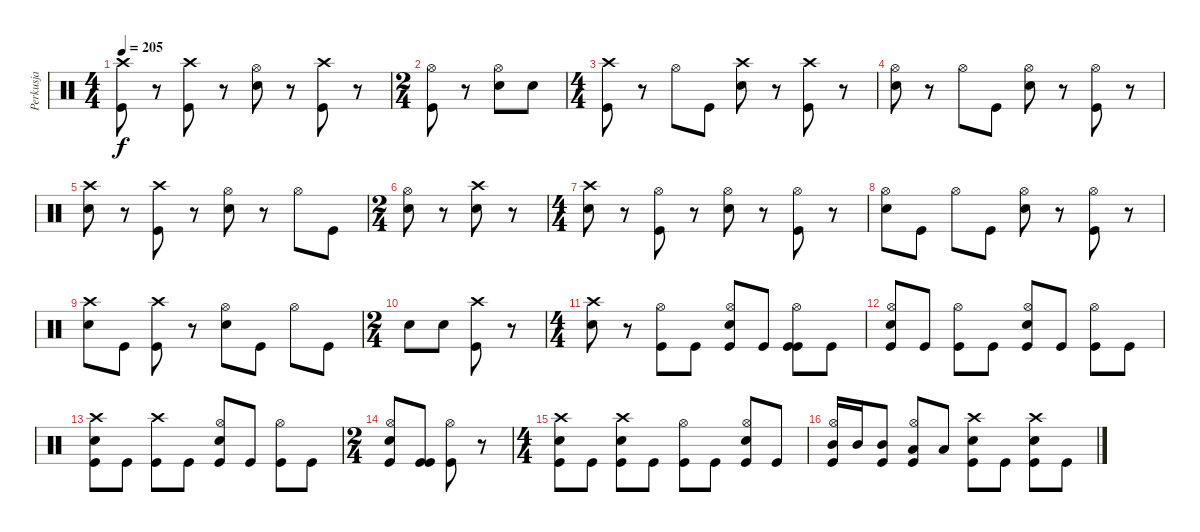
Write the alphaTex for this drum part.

\track ("Perkusja" "Perkusja") {instrument percussion}
\staff {score}
\articulation defaults
\ts (4 4)
\tempo 205
\clef neutral
\ks c
("Crash high (hit)" "Kick (hit)").8{dy f} r.8 ("Crash high (hit)" "Kick (hit)").8 r.8 ("Hi-Hat (open)" "Snare (hit) 2").8 r.8 ("Crash high (hit)" "Kick (hit)").8 r.8 |
\ts (2 4)
("Hi-Hat (open)" "Kick (hit)").8 r.8 ("Hi-Hat (open)" "Snare (hit) 2").8 "Snare (hit) 2".8 |
\ts (4 4)
("Crash high (hit)" "Kick (hit)").8 r.8 "Hi-Hat (open)".8 "Kick (hit)".8 ("Crash high (hit)" "Snare (hit) 2").8 r.8 ("Crash high (hit)" "Kick (hit)").8 r.8 |
("Hi-Hat (open)" "Snare (hit) 2").8 r.8 "Hi-Hat (open)".8 "Kick (hit)".8 ("Hi-Hat (open)" "Snare (hit) 2").8 r.8 ("Hi-Hat (open)" "Kick (hit)").8 r.8 |
("Crash high (hit)" "Snare (hit) 2").8 r.8 ("Crash high (hit)" "Kick (hit)").8 r.8 ("Hi-Hat (open)" "Snare (hit) 2").8 r.8 "Hi-Hat (open)".8 "Kick (hit)".8 |
\ts (2 4)
("Hi-Hat (open)" "Snare (hit) 2").8 r.8 ("Crash high (hit)" "Snare (hit) 2").8 r.8 |
\ts (4 4)
("Crash high (hit)" "Snare (hit) 2").8 r.8 ("Hi-Hat (open)" "Kick (hit)").8 r.8 ("Hi-Hat (open)" "Snare (hit) 2").8 r.8 ("Hi-Hat (open)" "Kick (hit)").8 r.8 |
("Hi-Hat (open)" "Snare (hit) 2").8 "Kick (hit)".8 "Hi-Hat (open)".8 "Kick (hit)".8 ("Hi-Hat (open)" "Snare (hit) 2").8 r.8 ("Hi-Hat (open)" "Kick (hit)").8 r.8 |
("Crash high (hit)" "Snare (hit) 2").8 "Kick (hit)".8 ("Crash high (hit)" "Kick (hit)").8 r.8 ("Hi-Hat (open)" "Snare (hit) 2").8 "Kick (hit)".8 "Hi-Hat (open)".8 "Kick (hit)".8 |
\ts (2 4)
"Snare (hit) 2".8 "Snare (hit) 2".8 ("Crash high (hit)" "Kick (hit)").8 r.8 |
\ts (4 4)
("Crash high (hit)" "Snare (hit) 2").8 r.8 ("Hi-Hat (open)" "Kick (hit)").8 "Kick (hit)".8 ("Hi-Hat (open)" "Kick (hit)" "Snare (hit) 2").8 "Kick (hit)".8 ("Hi-Hat (open)" "Kick (hit)" "Kick (hit)").8 "Kick (hit)".8 |
("Hi-Hat (open)" "Kick (hit)" "Snare (hit) 2").8 "Kick (hit)".8 ("Hi-Hat (open)" "Kick (hit)").8 "Kick (hit)".8 ("Hi-Hat (open)" "Kick (hit)" "Snare (hit) 2").8 "Kick (hit)".8 ("Hi-Hat (open)" "Kick (hit)").8 "Kick (hit)".8 |
("Crash high (hit)" "Kick (hit)" "Snare (hit) 2").8 "Kick (hit)".8 ("Crash high (hit)" "Kick (hit)").8 "Kick (hit)".8 ("Hi-Hat (open)" "Kick (hit)" "Snare (hit) 2").8 "Kick (hit)".8 ("Hi-Hat (open)" "Kick (hit)").8 "Kick (hit)".8 |
\ts (2 4)
("Hi-Hat (open)" "Kick (hit)" "Snare (hit) 2").8 ("Kick (hit)" "Kick (hit)").8 ("Hi-Hat (open)" "Kick (hit)").8 r.8 |
\ts (4 4)
("Crash high (hit)" "Kick (hit)" "Snare (hit) 2").8 "Kick (hit)".8 ("Crash high (hit)" "Kick (hit)" "Snare (hit) 2").8 "Kick (hit)".8 ("Hi-Hat (open)" "Kick (hit)").8 "Kick (hit)".8 ("Hi-Hat (open)" "Snare (hit) 2" "Kick (hit)").8 "Kick (hit)".8 |
("Hi-Hat (open)" "Mid Tom (hit)" "Kick (hit)").16 "Mid Tom (hit)".16 ("Mid Tom (hit)" "Kick (hit)").8 ("Hi-Hat (open)" "Low Tom (hit)" "Kick (hit)").8 "Low Tom (hit)".8 ("Crash high (hit)" "Kick (hit)" "Snare (hit) 2").8 "Kick (hit)".8 ("Crash high (hit)" "Snare (hit) 2" "Kick (hit)").8 "Kick (hit)".8
